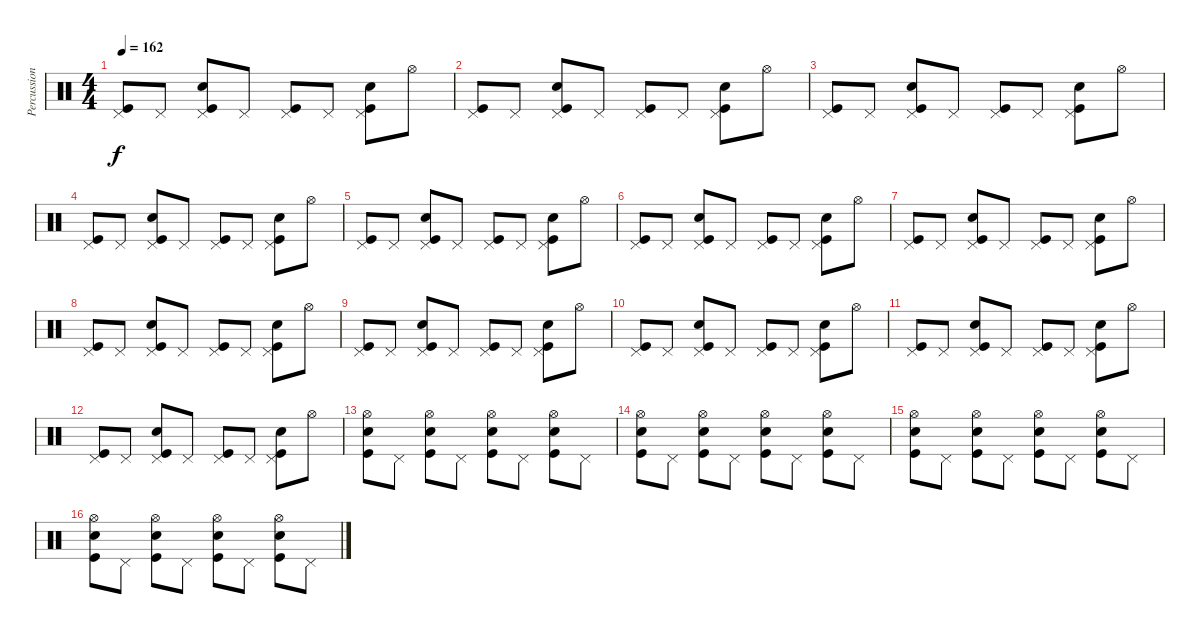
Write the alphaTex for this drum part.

\track ("Percussion" "Percussion") {instrument percussion}
\staff {score}
\articulation defaults
\ts (4 4)
\tempo 162
\clef neutral
\ks c
("Pedal Hi-Hat (hit)" "Kick (hit)").8{dy f} "Pedal Hi-Hat (hit)".8 ("Pedal Hi-Hat (hit)" "Snare (hit) 2" "Kick (hit)").8 "Pedal Hi-Hat (hit)".8 ("Pedal Hi-Hat (hit)" "Kick (hit)").8 "Pedal Hi-Hat (hit)".8 ("Pedal Hi-Hat (hit)" "Snare (hit) 2" "Kick (hit)").8 "Hi-Hat (open)".8 |
("Pedal Hi-Hat (hit)" "Kick (hit)").8 "Pedal Hi-Hat (hit)".8 ("Pedal Hi-Hat (hit)" "Snare (hit) 2" "Kick (hit)").8 "Pedal Hi-Hat (hit)".8 ("Pedal Hi-Hat (hit)" "Kick (hit)").8 "Pedal Hi-Hat (hit)".8 ("Pedal Hi-Hat (hit)" "Snare (hit) 2" "Kick (hit)").8 "Hi-Hat (open)".8 |
("Pedal Hi-Hat (hit)" "Kick (hit)").8 "Pedal Hi-Hat (hit)".8 ("Pedal Hi-Hat (hit)" "Snare (hit) 2" "Kick (hit)").8 "Pedal Hi-Hat (hit)".8 ("Pedal Hi-Hat (hit)" "Kick (hit)").8 "Pedal Hi-Hat (hit)".8 ("Pedal Hi-Hat (hit)" "Snare (hit) 2" "Kick (hit)").8 "Hi-Hat (open)".8 |
("Pedal Hi-Hat (hit)" "Kick (hit)").8 "Pedal Hi-Hat (hit)".8 ("Pedal Hi-Hat (hit)" "Snare (hit) 2" "Kick (hit)").8 "Pedal Hi-Hat (hit)".8 ("Pedal Hi-Hat (hit)" "Kick (hit)").8 "Pedal Hi-Hat (hit)".8 ("Pedal Hi-Hat (hit)" "Snare (hit) 2" "Kick (hit)").8 "Hi-Hat (open)".8 |
("Pedal Hi-Hat (hit)" "Kick (hit)").8 "Pedal Hi-Hat (hit)".8 ("Pedal Hi-Hat (hit)" "Snare (hit) 2" "Kick (hit)").8 "Pedal Hi-Hat (hit)".8 ("Pedal Hi-Hat (hit)" "Kick (hit)").8 "Pedal Hi-Hat (hit)".8 ("Pedal Hi-Hat (hit)" "Snare (hit) 2" "Kick (hit)").8 "Hi-Hat (open)".8 |
("Pedal Hi-Hat (hit)" "Kick (hit)").8 "Pedal Hi-Hat (hit)".8 ("Pedal Hi-Hat (hit)" "Snare (hit) 2" "Kick (hit)").8 "Pedal Hi-Hat (hit)".8 ("Pedal Hi-Hat (hit)" "Kick (hit)").8 "Pedal Hi-Hat (hit)".8 ("Pedal Hi-Hat (hit)" "Snare (hit) 2" "Kick (hit)").8 "Hi-Hat (open)".8 |
("Pedal Hi-Hat (hit)" "Kick (hit)").8 "Pedal Hi-Hat (hit)".8 ("Pedal Hi-Hat (hit)" "Snare (hit) 2" "Kick (hit)").8 "Pedal Hi-Hat (hit)".8 ("Pedal Hi-Hat (hit)" "Kick (hit)").8 "Pedal Hi-Hat (hit)".8 ("Pedal Hi-Hat (hit)" "Snare (hit) 2" "Kick (hit)").8 "Hi-Hat (open)".8 |
("Pedal Hi-Hat (hit)" "Kick (hit)").8 "Pedal Hi-Hat (hit)".8 ("Pedal Hi-Hat (hit)" "Snare (hit) 2" "Kick (hit)").8 "Pedal Hi-Hat (hit)".8 ("Pedal Hi-Hat (hit)" "Kick (hit)").8 "Pedal Hi-Hat (hit)".8 ("Pedal Hi-Hat (hit)" "Snare (hit) 2" "Kick (hit)").8 "Hi-Hat (open)".8 |
("Pedal Hi-Hat (hit)" "Kick (hit)").8 "Pedal Hi-Hat (hit)".8 ("Pedal Hi-Hat (hit)" "Snare (hit) 2" "Kick (hit)").8 "Pedal Hi-Hat (hit)".8 ("Pedal Hi-Hat (hit)" "Kick (hit)").8 "Pedal Hi-Hat (hit)".8 ("Pedal Hi-Hat (hit)" "Snare (hit) 2" "Kick (hit)").8 "Hi-Hat (open)".8 |
("Pedal Hi-Hat (hit)" "Kick (hit)").8 "Pedal Hi-Hat (hit)".8 ("Pedal Hi-Hat (hit)" "Snare (hit) 2" "Kick (hit)").8 "Pedal Hi-Hat (hit)".8 ("Pedal Hi-Hat (hit)" "Kick (hit)").8 "Pedal Hi-Hat (hit)".8 ("Pedal Hi-Hat (hit)" "Snare (hit) 2" "Kick (hit)").8 "Hi-Hat (open)".8 |
("Pedal Hi-Hat (hit)" "Kick (hit)").8 "Pedal Hi-Hat (hit)".8 ("Pedal Hi-Hat (hit)" "Snare (hit) 2" "Kick (hit)").8 "Pedal Hi-Hat (hit)".8 ("Pedal Hi-Hat (hit)" "Kick (hit)").8 "Pedal Hi-Hat (hit)".8 ("Pedal Hi-Hat (hit)" "Snare (hit) 2" "Kick (hit)").8 "Hi-Hat (open)".8 |
("Pedal Hi-Hat (hit)" "Kick (hit)").8 "Pedal Hi-Hat (hit)".8 ("Pedal Hi-Hat (hit)" "Snare (hit) 2" "Kick (hit)").8 "Pedal Hi-Hat (hit)".8 ("Pedal Hi-Hat (hit)" "Kick (hit)").8 "Pedal Hi-Hat (hit)".8 ("Pedal Hi-Hat (hit)" "Snare (hit) 2" "Kick (hit)").8 "Hi-Hat (open)".8 |
("Hi-Hat (open)" "Kick (hit)" "Snare (hit) 2").8 "Pedal Hi-Hat (hit)".8 ("Hi-Hat (open)" "Snare (hit) 2" "Kick (hit)").8 "Pedal Hi-Hat (hit)".8 ("Hi-Hat (open)" "Kick (hit)" "Snare (hit) 2").8 "Pedal Hi-Hat (hit)".8 ("Hi-Hat (open)" "Snare (hit) 2" "Kick (hit)").8 "Pedal Hi-Hat (hit)".8 |
("Hi-Hat (open)" "Kick (hit)" "Snare (hit) 2").8 "Pedal Hi-Hat (hit)".8 ("Hi-Hat (open)" "Snare (hit) 2" "Kick (hit)").8 "Pedal Hi-Hat (hit)".8 ("Hi-Hat (open)" "Kick (hit)" "Snare (hit) 2").8 "Pedal Hi-Hat (hit)".8 ("Hi-Hat (open)" "Snare (hit) 2" "Kick (hit)").8 "Pedal Hi-Hat (hit)".8 |
("Hi-Hat (open)" "Kick (hit)" "Snare (hit) 2").8 "Pedal Hi-Hat (hit)".8 ("Hi-Hat (open)" "Snare (hit) 2" "Kick (hit)").8 "Pedal Hi-Hat (hit)".8 ("Hi-Hat (open)" "Kick (hit)" "Snare (hit) 2").8 "Pedal Hi-Hat (hit)".8 ("Hi-Hat (open)" "Snare (hit) 2" "Kick (hit)").8 "Pedal Hi-Hat (hit)".8 |
("Hi-Hat (open)" "Kick (hit)" "Snare (hit) 2").8 "Pedal Hi-Hat (hit)".8 ("Hi-Hat (open)" "Snare (hit) 2" "Kick (hit)").8 "Pedal Hi-Hat (hit)".8 ("Hi-Hat (open)" "Kick (hit)" "Snare (hit) 2").8 "Pedal Hi-Hat (hit)".8 ("Hi-Hat (open)" "Snare (hit) 2" "Kick (hit)").8 "Pedal Hi-Hat (hit)".8
